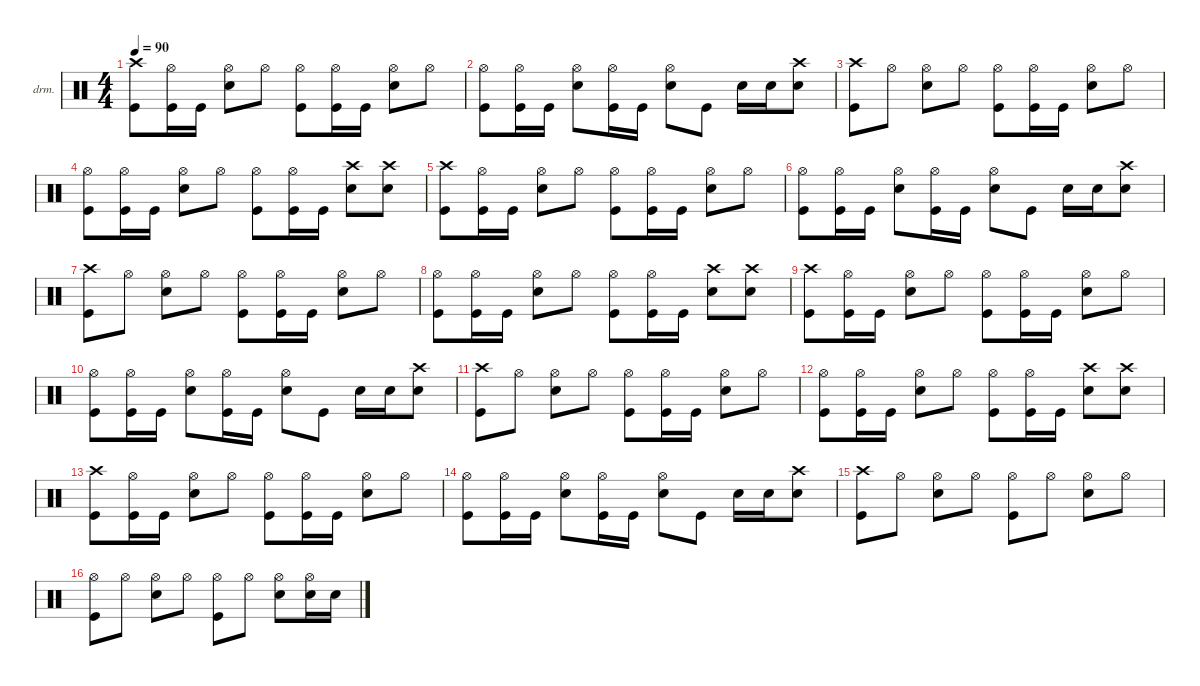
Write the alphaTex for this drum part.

\defaultSystemsLayout 4
\hideDynamics
\bracketExtendMode nobrackets
\firstSystemTrackNameOrientation horizontal
\otherSystemsTrackNameOrientation horizontal
\track ("Percussion" "drm.") {instrument percussion}
\staff {score}
\articulation defaults
\ts (4 4)
\tempo 90
\clef neutral
\ks c
("Crash high (hit)" "Kick (hit)").8{dy f beam Down} ("Hi-Hat (open)" "Kick (hit)").16{beam Down} "Kick (hit)".16{beam Down} ("Hi-Hat (open)" "Snare (hit) 2").8{beam Down} "Hi-Hat (open)".8{beam Down} ("Hi-Hat (open)" "Kick (hit)").8{beam Down} ("Hi-Hat (open)" "Kick (hit)").16{beam Down} "Kick (hit)".16{beam Down} ("Hi-Hat (open)" "Snare (hit) 2").8{beam Down} "Hi-Hat (open)".8{beam Down} |
("Hi-Hat (open)" "Kick (hit)").8{beam Down} ("Hi-Hat (open)" "Kick (hit)").16{beam Down} "Kick (hit)".16{beam Down} ("Hi-Hat (open)" "Snare (hit) 2").8{beam Down} ("Hi-Hat (open)" "Kick (hit)").16{beam Down} "Kick (hit)".16{beam Down} ("Hi-Hat (open)" "Snare (hit) 2").8{beam Down} "Kick (hit)".8{beam Down} "Snare (hit) 2".16{beam Down} "Snare (hit) 2".16{beam Down} ("Crash high (hit)" "Snare (hit) 2").8{beam Down} |
("Crash high (hit)" "Kick (hit)").8{beam Down} "Hi-Hat (open)".8{beam Down} ("Hi-Hat (open)" "Snare (hit) 2").8{beam Down} "Hi-Hat (open)".8{beam Down} ("Hi-Hat (open)" "Kick (hit)").8{beam Down} ("Hi-Hat (open)" "Kick (hit)").16{beam Down} "Kick (hit)".16{beam Down} ("Hi-Hat (open)" "Snare (hit) 2").8{beam Down} "Hi-Hat (open)".8{beam Down} |
("Hi-Hat (open)" "Kick (hit)").8{beam Down} ("Hi-Hat (open)" "Kick (hit)").16{beam Down} "Kick (hit)".16{beam Down} ("Hi-Hat (open)" "Snare (hit) 2").8{beam Down} "Hi-Hat (open)".8{beam Down} ("Hi-Hat (open)" "Kick (hit)").8{beam Down} ("Hi-Hat (open)" "Kick (hit)").16{beam Down} "Kick (hit)".16{beam Down} ("Crash high (hit)" "Snare (hit) 2").8{beam Down} ("Crash high (hit)" "Snare (hit) 2").8{beam Down} |
("Crash high (hit)" "Kick (hit)").8{beam Down} ("Hi-Hat (open)" "Kick (hit)").16{beam Down} "Kick (hit)".16{beam Down} ("Hi-Hat (open)" "Snare (hit) 2").8{beam Down} "Hi-Hat (open)".8{beam Down} ("Hi-Hat (open)" "Kick (hit)").8{beam Down} ("Hi-Hat (open)" "Kick (hit)").16{beam Down} "Kick (hit)".16{beam Down} ("Hi-Hat (open)" "Snare (hit) 2").8{beam Down} "Hi-Hat (open)".8{beam Down} |
("Hi-Hat (open)" "Kick (hit)").8{beam Down} ("Hi-Hat (open)" "Kick (hit)").16{beam Down} "Kick (hit)".16{beam Down} ("Hi-Hat (open)" "Snare (hit) 2").8{beam Down} ("Hi-Hat (open)" "Kick (hit)").16{beam Down} "Kick (hit)".16{beam Down} ("Hi-Hat (open)" "Snare (hit) 2").8{beam Down} "Kick (hit)".8{beam Down} "Snare (hit) 2".16{beam Down} "Snare (hit) 2".16{beam Down} ("Crash high (hit)" "Snare (hit) 2").8{beam Down} |
("Crash high (hit)" "Kick (hit)").8{beam Down} "Hi-Hat (open)".8{beam Down} ("Hi-Hat (open)" "Snare (hit) 2").8{beam Down} "Hi-Hat (open)".8{beam Down} ("Hi-Hat (open)" "Kick (hit)").8{beam Down} ("Hi-Hat (open)" "Kick (hit)").16{beam Down} "Kick (hit)".16{beam Down} ("Hi-Hat (open)" "Snare (hit) 2").8{beam Down} "Hi-Hat (open)".8{beam Down} |
("Hi-Hat (open)" "Kick (hit)").8{beam Down} ("Hi-Hat (open)" "Kick (hit)").16{beam Down} "Kick (hit)".16{beam Down} ("Hi-Hat (open)" "Snare (hit) 2").8{beam Down} "Hi-Hat (open)".8{beam Down} ("Hi-Hat (open)" "Kick (hit)").8{beam Down} ("Hi-Hat (open)" "Kick (hit)").16{beam Down} "Kick (hit)".16{beam Down} ("Crash high (hit)" "Snare (hit) 2").8{beam Down} ("Crash high (hit)" "Snare (hit) 2").8{beam Down} |
("Crash high (hit)" "Kick (hit)").8{beam Down} ("Hi-Hat (open)" "Kick (hit)").16{beam Down} "Kick (hit)".16{beam Down} ("Hi-Hat (open)" "Snare (hit) 2").8{beam Down} "Hi-Hat (open)".8{beam Down} ("Hi-Hat (open)" "Kick (hit)").8{beam Down} ("Hi-Hat (open)" "Kick (hit)").16{beam Down} "Kick (hit)".16{beam Down} ("Hi-Hat (open)" "Snare (hit) 2").8{beam Down} "Hi-Hat (open)".8{beam Down} |
("Hi-Hat (open)" "Kick (hit)").8{beam Down} ("Hi-Hat (open)" "Kick (hit)").16{beam Down} "Kick (hit)".16{beam Down} ("Hi-Hat (open)" "Snare (hit) 2").8{beam Down} ("Hi-Hat (open)" "Kick (hit)").16{beam Down} "Kick (hit)".16{beam Down} ("Hi-Hat (open)" "Snare (hit) 2").8{beam Down} "Kick (hit)".8{beam Down} "Snare (hit) 2".16{beam Down} "Snare (hit) 2".16{beam Down} ("Crash high (hit)" "Snare (hit) 2").8{beam Down} |
("Crash high (hit)" "Kick (hit)").8{beam Down} "Hi-Hat (open)".8{beam Down} ("Hi-Hat (open)" "Snare (hit) 2").8{beam Down} "Hi-Hat (open)".8{beam Down} ("Hi-Hat (open)" "Kick (hit)").8{beam Down} ("Hi-Hat (open)" "Kick (hit)").16{beam Down} "Kick (hit)".16{beam Down} ("Hi-Hat (open)" "Snare (hit) 2").8{beam Down} "Hi-Hat (open)".8{beam Down} |
("Hi-Hat (open)" "Kick (hit)").8{beam Down} ("Hi-Hat (open)" "Kick (hit)").16{beam Down} "Kick (hit)".16{beam Down} ("Hi-Hat (open)" "Snare (hit) 2").8{beam Down} "Hi-Hat (open)".8{beam Down} ("Hi-Hat (open)" "Kick (hit)").8{beam Down} ("Hi-Hat (open)" "Kick (hit)").16{beam Down} "Kick (hit)".16{beam Down} ("Crash high (hit)" "Snare (hit) 2").8{beam Down} ("Crash high (hit)" "Snare (hit) 2").8{beam Down} |
("Crash high (hit)" "Kick (hit)").8{beam Down} ("Hi-Hat (open)" "Kick (hit)").16{beam Down} "Kick (hit)".16{beam Down} ("Hi-Hat (open)" "Snare (hit) 2").8{beam Down} "Hi-Hat (open)".8{beam Down} ("Hi-Hat (open)" "Kick (hit)").8{beam Down} ("Hi-Hat (open)" "Kick (hit)").16{beam Down} "Kick (hit)".16{beam Down} ("Hi-Hat (open)" "Snare (hit) 2").8{beam Down} "Hi-Hat (open)".8{beam Down} |
("Hi-Hat (open)" "Kick (hit)").8{beam Down} ("Hi-Hat (open)" "Kick (hit)").16{beam Down} "Kick (hit)".16{beam Down} ("Hi-Hat (open)" "Snare (hit) 2").8{beam Down} ("Hi-Hat (open)" "Kick (hit)").16{beam Down} "Kick (hit)".16{beam Down} ("Hi-Hat (open)" "Snare (hit) 2").8{beam Down} "Kick (hit)".8{beam Down} "Snare (hit) 2".16{beam Down} "Snare (hit) 2".16{beam Down} ("Crash high (hit)" "Snare (hit) 2").8{beam Down} |
("Crash high (hit)" "Kick (hit)").8{beam Down} "Hi-Hat (open)".8{beam Down} ("Hi-Hat (open)" "Snare (hit) 2").8{beam Down} "Hi-Hat (open)".8{beam Down} ("Hi-Hat (open)" "Kick (hit)").8{beam Down} "Hi-Hat (open)".8{beam Down} ("Hi-Hat (open)" "Snare (hit) 2").8{beam Down} "Hi-Hat (open)".8{beam Down} |
("Hi-Hat (open)" "Kick (hit)").8{beam Down} "Hi-Hat (open)".8{beam Down} ("Hi-Hat (open)" "Snare (hit) 2").8{beam Down} "Hi-Hat (open)".8{beam Down} ("Hi-Hat (open)" "Kick (hit)").8{beam Down} "Hi-Hat (open)".8{beam Down} ("Hi-Hat (open)" "Snare (hit) 2").8{beam Down} ("Hi-Hat (open)" "Snare (hit) 2").16{beam Down} "Snare (hit) 2".16{beam Down}
